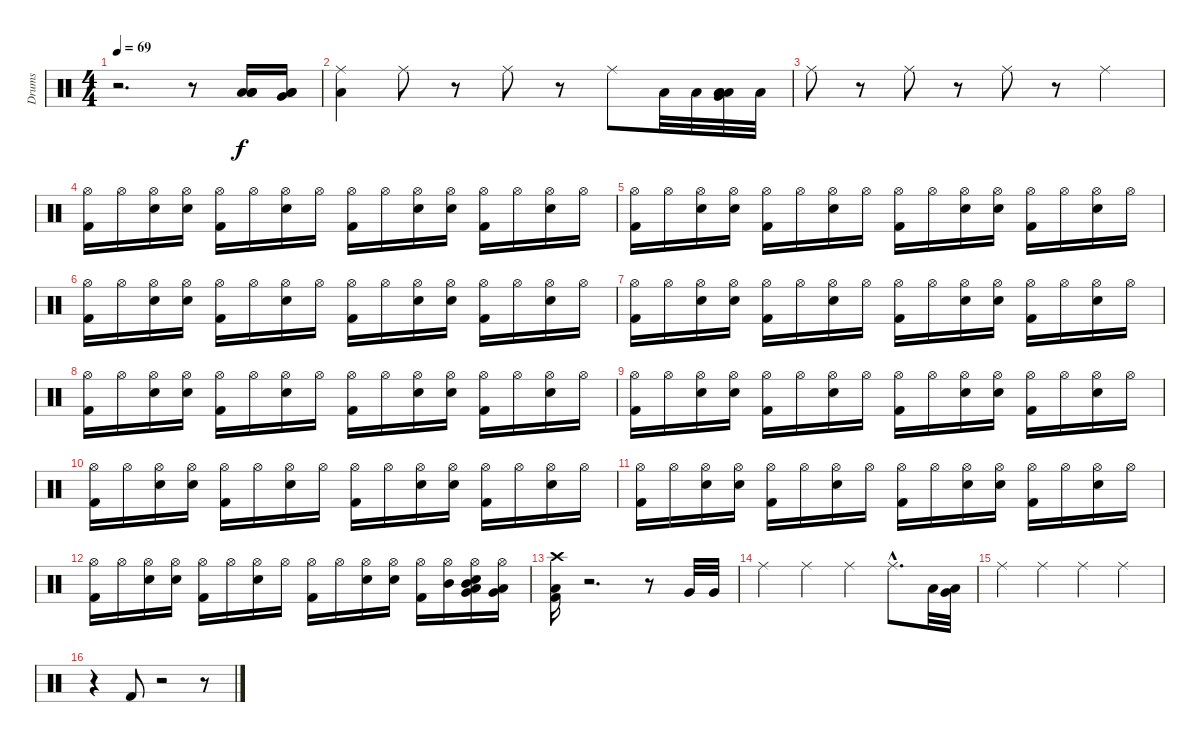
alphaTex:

\track ("Drums" "Drums") {instrument percussion}
\staff {score}
\articulation defaults
\ts (4 4)
\tempo 69
\clef neutral
\ks c
r.2{d dy f} r.8 ("Low Floor Tom (hit)" "Low Floor Tom (hit)" "Low Floor Tom (hit)").16 ("Low Floor Tom (hit)" "Very Low Tom (hit)" "Low Tom (hit)").16 |
("Low Floor Tom (hit)" "Ride (middle)").4 "Ride (middle)".8 r.8 "Ride (middle)".8 r.8 "Ride (middle)".8 "Low Floor Tom (hit)".32 "Low Floor Tom (hit)".32 ("Low Floor Tom (hit)" "Low Floor Tom (hit)" "Very Low Tom (hit)" "Low Floor Tom (hit)").32 "Low Tom (hit)".32 |
"Ride (middle)".8 r.8 "Ride (middle)".8 r.8 "Ride (middle)".8 r.8 "Ride (middle)".4 |
("Hi-Hat (open)" "Kick (hit) 2").16 "Hi-Hat (open)".16 ("Snare (hit) 2" "Hi-Hat (open)").16 ("Hi-Hat (open)" "Snare (hit) 2").16 ("Kick (hit) 2" "Hi-Hat (open)").16 "Hi-Hat (open)".16 ("Snare (hit) 2" "Hi-Hat (open)").16 "Hi-Hat (open)".16 ("Hi-Hat (open)" "Kick (hit) 2").16 "Hi-Hat (open)".16 ("Hi-Hat (open)" "Snare (hit) 2").16 ("Snare (hit) 2" "Hi-Hat (open)").16 ("Hi-Hat (open)" "Kick (hit) 2").16 "Hi-Hat (open)".16 ("Hi-Hat (open)" "Snare (hit) 2").16 "Hi-Hat (open)".16 |
("Hi-Hat (open)" "Kick (hit) 2").16 "Hi-Hat (open)".16 ("Hi-Hat (open)" "Snare (hit) 2").16 ("Hi-Hat (open)" "Snare (hit) 2").16 ("Hi-Hat (open)" "Kick (hit) 2").16 "Hi-Hat (open)".16 ("Hi-Hat (open)" "Snare (hit) 2").16 "Hi-Hat (open)".16 ("Hi-Hat (open)" "Kick (hit) 2").16 "Hi-Hat (open)".16 ("Snare (hit) 2" "Hi-Hat (open)").16 ("Hi-Hat (open)" "Snare (hit) 2").16 ("Hi-Hat (open)" "Kick (hit) 2").16 "Hi-Hat (open)".16 ("Snare (hit) 2" "Hi-Hat (open)").16 "Hi-Hat (open)".16 |
("Hi-Hat (open)" "Kick (hit) 2").16 "Hi-Hat (open)".16 ("Snare (hit) 2" "Hi-Hat (open)").16 ("Hi-Hat (open)" "Snare (hit) 2").16 ("Hi-Hat (open)" "Kick (hit) 2").16 "Hi-Hat (open)".16 ("Snare (hit) 2" "Hi-Hat (open)").16 "Hi-Hat (open)".16 ("Hi-Hat (open)" "Kick (hit) 2").16 "Hi-Hat (open)".16 ("Hi-Hat (open)" "Snare (hit) 2").16 ("Snare (hit) 2" "Hi-Hat (open)").16 ("Hi-Hat (open)" "Kick (hit) 2").16 "Hi-Hat (open)".16 ("Hi-Hat (open)" "Snare (hit) 2").16 "Hi-Hat (open)".16 |
("Kick (hit) 2" "Hi-Hat (open)").16 "Hi-Hat (open)".16 ("Hi-Hat (open)" "Snare (hit) 2").16 ("Hi-Hat (open)" "Snare (hit) 2").16 ("Hi-Hat (open)" "Kick (hit) 2").16 "Hi-Hat (open)".16 ("Hi-Hat (open)" "Snare (hit) 2").16 "Hi-Hat (open)".16 ("Kick (hit) 2" "Hi-Hat (open)").16 "Hi-Hat (open)".16 ("Snare (hit) 2" "Hi-Hat (open)").16 ("Hi-Hat (open)" "Snare (hit) 2").16 ("Hi-Hat (open)" "Kick (hit) 2").16 "Hi-Hat (open)".16 ("Snare (hit) 2" "Hi-Hat (open)").16 "Hi-Hat (open)".16 |
("Kick (hit) 2" "Hi-Hat (open)").16 "Hi-Hat (open)".16 ("Snare (hit) 2" "Hi-Hat (open)").16 ("Hi-Hat (open)" "Snare (hit) 2").16 ("Hi-Hat (open)" "Kick (hit) 2").16 "Hi-Hat (open)".16 ("Snare (hit) 2" "Hi-Hat (open)").16 "Hi-Hat (open)".16 ("Hi-Hat (open)" "Kick (hit) 2").16 "Hi-Hat (open)".16 ("Hi-Hat (open)" "Snare (hit) 2").16 ("Snare (hit) 2" "Hi-Hat (open)").16 ("Hi-Hat (open)" "Kick (hit) 2").16 "Hi-Hat (open)".16 ("Hi-Hat (open)" "Snare (hit) 2").16 "Hi-Hat (open)".16 |
("Hi-Hat (open)" "Kick (hit) 2").16 "Hi-Hat (open)".16 ("Hi-Hat (open)" "Snare (hit) 2").16 ("Hi-Hat (open)" "Snare (hit) 2").16 ("Hi-Hat (open)" "Kick (hit) 2").16 "Hi-Hat (open)".16 ("Hi-Hat (open)" "Snare (hit) 2").16 "Hi-Hat (open)".16 ("Kick (hit) 2" "Hi-Hat (open)").16 "Hi-Hat (open)".16 ("Snare (hit) 2" "Hi-Hat (open)").16 ("Hi-Hat (open)" "Snare (hit) 2").16 ("Hi-Hat (open)" "Kick (hit) 2").16 "Hi-Hat (open)".16 ("Snare (hit) 2" "Hi-Hat (open)").16 "Hi-Hat (open)".16 |
("Kick (hit) 2" "Hi-Hat (open)").16 "Hi-Hat (open)".16 ("Snare (hit) 2" "Hi-Hat (open)").16 ("Hi-Hat (open)" "Snare (hit) 2").16 ("Hi-Hat (open)" "Kick (hit) 2").16 "Hi-Hat (open)".16 ("Snare (hit) 2" "Hi-Hat (open)").16 "Hi-Hat (open)".16 ("Kick (hit) 2" "Hi-Hat (open)").16 "Hi-Hat (open)".16 ("Hi-Hat (open)" "Snare (hit) 2").16 ("Snare (hit) 2" "Hi-Hat (open)").16 ("Hi-Hat (open)" "Kick (hit) 2").16 "Hi-Hat (open)".16 ("Hi-Hat (open)" "Snare (hit) 2").16 "Hi-Hat (open)".16 |
("Kick (hit) 2" "Hi-Hat (open)").16 "Hi-Hat (open)".16 ("Hi-Hat (open)" "Snare (hit) 2").16 ("Hi-Hat (open)" "Snare (hit) 2").16 ("Hi-Hat (open)" "Kick (hit) 2").16 "Hi-Hat (open)".16 ("Hi-Hat (open)" "Snare (hit) 2").16 "Hi-Hat (open)".16 ("Hi-Hat (open)" "Kick (hit) 2").16 "Hi-Hat (open)".16 ("Snare (hit) 2" "Hi-Hat (open)").16 ("Hi-Hat (open)" "Snare (hit) 2").16 ("Hi-Hat (open)" "Kick (hit) 2").16 "Hi-Hat (open)".16 ("Snare (hit) 2" "Hi-Hat (open)").16 "Hi-Hat (open)".16 |
("Hi-Hat (open)" "Kick (hit) 2").16 "Hi-Hat (open)".16 ("Snare (hit) 2" "Hi-Hat (open)").16 ("Hi-Hat (open)" "Snare (hit) 2").16 ("Hi-Hat (open)" "Kick (hit) 2").16 "Hi-Hat (open)".16 ("Snare (hit) 2" "Hi-Hat (open)").16 "Hi-Hat (open)".16 ("Hi-Hat (open)" "Kick (hit) 2").16 "Hi-Hat (open)".16 ("Hi-Hat (open)" "Snare (hit) 2").16 ("Snare (hit) 2" "Hi-Hat (open)").16 ("Kick (hit) 2" "Hi-Hat (open)").16 ("Mid Tom (hit)" "Hi-Hat (open)").16 ("Hi-Hat (open)" "Snare (hit) 2" "Low Tom (hit)" "Mid Tom (hit)" "Very Low Tom (hit)").16 ("Very Low Tom (hit)" "Low Tom (hit)" "Hi-Hat (open)").16 |
("Kick (hit) 2" "Low Floor Tom (hit)" "Crash high (hit)").16 r.2{d} r.8 "Very Low Tom (hit)".32 "Very Low Tom (hit)".32 |
"Ride (middle)".4 "Ride (middle)".4 "Ride (middle)".4 "Ride (middle)"{hac}.8{d} "Low Floor Tom (hit)".32 ("Very Low Tom (hit)" "Low Tom (hit)").32 |
"Ride (middle)".4 "Ride (middle)".4 "Ride (middle)".4 "Ride (middle)".4 |
r.4 "Kick (hit) 2".8 r.2 r.8
